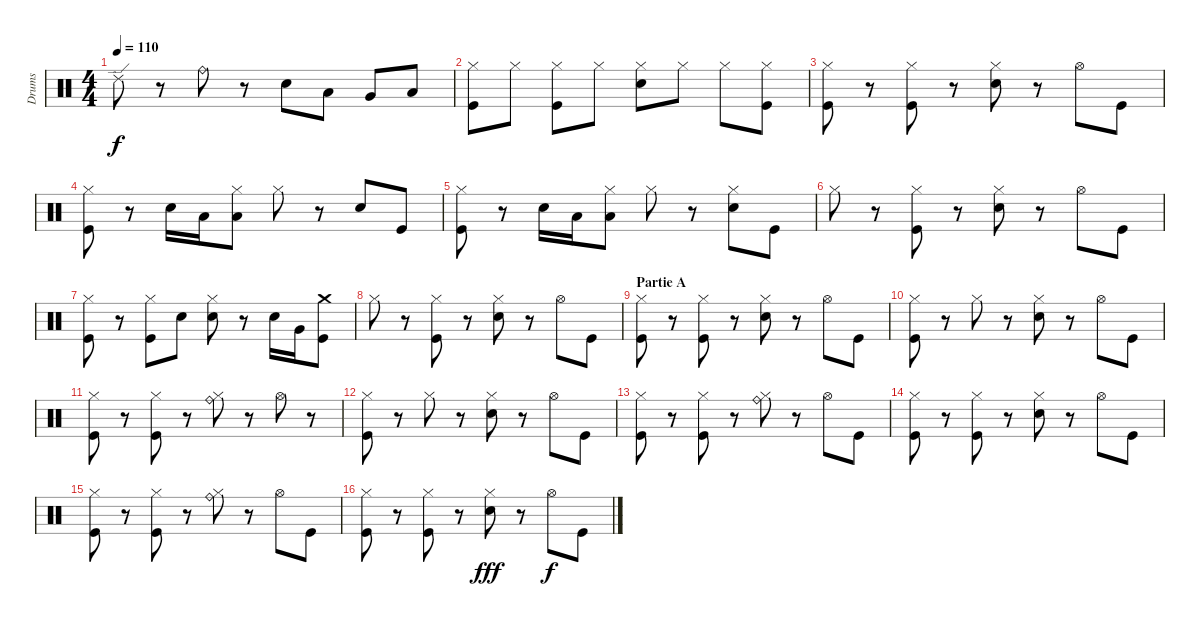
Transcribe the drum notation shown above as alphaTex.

\track ("Drums" "Drums") {instrument percussion}
\staff {score}
\articulation defaults
\ts (4 4)
\tempo 110
\clef neutral
\ks c "Ride (edge) 2".8{dy f}
r.8 "Ride (bell)".8 r.8 "Electric Snare (hit)".8 "Low Tom (hit)".8 "Very Low Tom (hit)".8 "Low Floor Tom (hit)".8 |
("Kick (hit)" "Hi-Hat (closed)").8 "Hi-Hat (closed)".8 ("Kick (hit)" "Hi-Hat (closed)").8 "Hi-Hat (closed)".8 ("Snare (hit) 2" "Hi-Hat (closed)").8 "Hi-Hat (closed)".8 "Hi-Hat (closed)".8 ("Kick (hit)" "Hi-Hat (closed)").8 |
("Hi-Hat (closed)" "Kick (hit)").8 r.8 ("Hi-Hat (closed)" "Kick (hit)").8 r.8 ("Hi-Hat (closed)" "Electric Snare (hit)").8 r.8 "Hi-Hat (open)".8 "Kick (hit)".8 |
("Hi-Hat (closed)" "Kick (hit)").8 r.8 "Snare (hit) 2".16 "Low Tom (hit)".16 ("Hi-Hat (closed)" "Low Floor Tom (hit)").8 "Hi-Hat (closed)".8 r.8 "Snare (hit) 2".8 "Kick (hit)".8 |
("Hi-Hat (closed)" "Kick (hit)").8 r.8 "Snare (hit) 2".16 "Low Tom (hit)".16 ("Hi-Hat (closed)" "Low Floor Tom (hit)").8 "Hi-Hat (closed)".8 r.8 ("Electric Snare (hit)" "Hi-Hat (closed)").8 "Kick (hit)".8 |
"Hi-Hat (closed)".8 r.8 ("Kick (hit)" "Hi-Hat (closed)").8 r.8 ("Hi-Hat (closed)" "Snare (hit) 2").8 r.8 "Hi-Hat (open)".8 "Kick (hit)".8 |
("Hi-Hat (closed)" "Kick (hit)").8 r.8 ("Hi-Hat (closed)" "Kick (hit)").8 "Snare (hit) 2".8 ("Hi-Hat (closed)" "Snare (hit) 2").8 r.8 "Electric Snare (hit)".16 "Very Low Tom (hit)".16 ("Crash medium (hit)" "Kick (hit)").8 |
"Hi-Hat (closed)".8 r.8 ("Hi-Hat (closed)" "Kick (hit)").8 r.8 ("Hi-Hat (closed)" "Electric Snare (hit)").8 r.8 "Hi-Hat (open)".8 "Kick (hit)".8 |
\section ("" "Partie A")
("Hi-Hat (closed)" "Kick (hit)").8 r.8 ("Kick (hit)" "Hi-Hat (closed)").8 r.8 ("Hi-Hat (closed)" "Electric Snare (hit)").8 r.8 "Hi-Hat (open)".8 "Kick (hit)".8 |
("Hi-Hat (closed)" "Kick (hit)").8 r.8 "Hi-Hat (closed)".8 r.8 ("Hi-Hat (closed)" "Electric Snare (hit)").8 r.8 "Hi-Hat (open)".8 "Kick (hit)".8 |
("Hi-Hat (closed)" "Kick (hit)").8 r.8 ("Hi-Hat (closed)" "Kick (hit)").8 r.8 ("Ride (bell)" "Hi-Hat (closed)").8 r.8 "Hi-Hat (open)".8 r.8 |
("Hi-Hat (closed)" "Kick (hit)").8 r.8 "Hi-Hat (closed)".8 r.8 ("Hi-Hat (closed)" "Electric Snare (hit)").8 r.8 "Hi-Hat (open)".8 "Kick (hit)".8 |
("Hi-Hat (closed)" "Kick (hit)").8 r.8 ("Hi-Hat (closed)" "Kick (hit)").8 r.8 ("Ride (bell)" "Hi-Hat (closed)").8 r.8 "Hi-Hat (open)".8 "Kick (hit)".8 |
("Hi-Hat (closed)" "Kick (hit)").8 r.8 ("Hi-Hat (closed)" "Kick (hit)").8 r.8 ("Hi-Hat (closed)" "Electric Snare (hit)").8 r.8 "Hi-Hat (open)".8 "Kick (hit)".8 |
("Hi-Hat (closed)" "Kick (hit)").8 r.8 ("Hi-Hat (closed)" "Kick (hit)").8 r.8 ("Ride (bell)" "Hi-Hat (closed)").8 r.8 "Hi-Hat (open)".8 "Kick (hit)".8 |
("Hi-Hat (closed)" "Kick (hit)").8 r.8 ("Hi-Hat (closed)" "Kick (hit)").8 r.8 ("Hi-Hat (closed)" "Electric Snare (hit)").8{dy fff} r.8 "Hi-Hat (open)".8{dy f} "Kick (hit)".8
